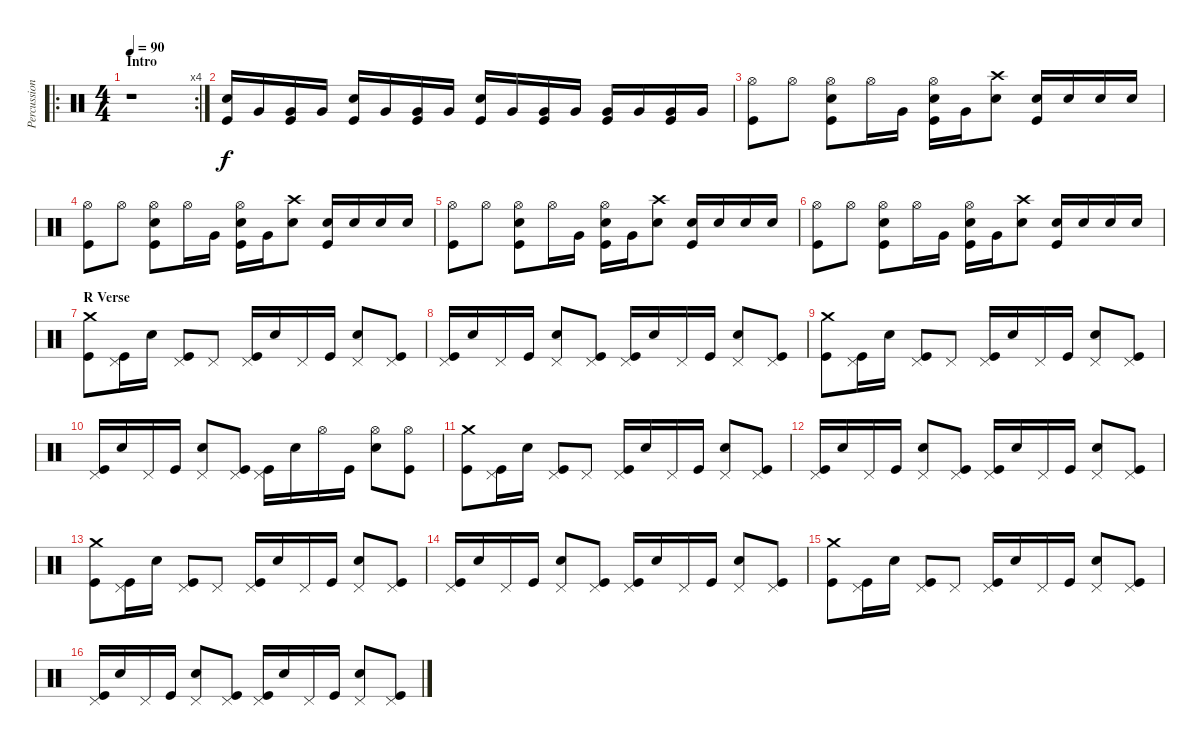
\track ("Percussion" "Percussion") {instrument percussion}
\staff {score}
\articulation defaults
\ro
\rc 4
\ts (4 4)
\section ("" "Intro")
\tempo 90
\clef neutral
\ks c
r.1{dy f} |
("Snare (hit) 2" "Kick (hit)").16 "Very Low Tom (hit)".16 ("Very Low Tom (hit)" "Kick (hit)").16 "Very Low Tom (hit)".16 ("Snare (hit) 2" "Kick (hit)").16 "Very Low Tom (hit)".16 ("Very Low Tom (hit)" "Kick (hit)").16 "Very Low Tom (hit)".16 ("Snare (hit) 2" "Kick (hit)").16 "Very Low Tom (hit)".16 ("Very Low Tom (hit)" "Kick (hit)").16 "Very Low Tom (hit)".16 ("Very Low Tom (hit)" "Kick (hit)").16 "Very Low Tom (hit)".16 ("Very Low Tom (hit)" "Kick (hit)").16 "Very Low Tom (hit)".16 |
("Hi-Hat (open)" "Kick (hit)").8 "Hi-Hat (open)".8 ("Hi-Hat (open)" "Snare (hit) 2" "Kick (hit)").8 "Hi-Hat (open)".16 "Very Low Tom (hit)".16 ("Hi-Hat (open)" "Snare (hit) 2" "Kick (hit)").16 "Very Low Tom (hit)".16 ("Crash high (hit)" "Snare (hit) 2").8 ("Snare (hit) 2" "Kick (hit)").16 "Snare (hit) 2".16 "Snare (hit) 2".16 "Snare (hit) 2".16 |
("Hi-Hat (open)" "Kick (hit)").8 "Hi-Hat (open)".8 ("Hi-Hat (open)" "Snare (hit) 2" "Kick (hit)").8 "Hi-Hat (open)".16 "Very Low Tom (hit)".16 ("Hi-Hat (open)" "Snare (hit) 2" "Kick (hit)").16 "Very Low Tom (hit)".16 ("Crash high (hit)" "Snare (hit) 2").8 ("Snare (hit) 2" "Kick (hit)").16 "Snare (hit) 2".16 "Snare (hit) 2".16 "Snare (hit) 2".16 |
("Hi-Hat (open)" "Kick (hit)").8 "Hi-Hat (open)".8 ("Hi-Hat (open)" "Snare (hit) 2" "Kick (hit)").8 "Hi-Hat (open)".16 "Very Low Tom (hit)".16 ("Hi-Hat (open)" "Snare (hit) 2" "Kick (hit)").16 "Very Low Tom (hit)".16 ("Crash high (hit)" "Snare (hit) 2").8 ("Snare (hit) 2" "Kick (hit)").16 "Snare (hit) 2".16 "Snare (hit) 2".16 "Snare (hit) 2".16 |
("Hi-Hat (open)" "Kick (hit)").8 "Hi-Hat (open)".8 ("Hi-Hat (open)" "Snare (hit) 2" "Kick (hit)").8 "Hi-Hat (open)".16 "Very Low Tom (hit)".16 ("Hi-Hat (open)" "Snare (hit) 2" "Kick (hit)").16 "Very Low Tom (hit)".16 ("Crash high (hit)" "Snare (hit) 2").8 ("Snare (hit) 2" "Kick (hit)").16 "Snare (hit) 2".16 "Snare (hit) 2".16 "Snare (hit) 2".16 |
\section ("" "R Verse")
("Crash medium (hit)" "Kick (hit)").8 ("Pedal Hi-Hat (hit)" "Kick (hit)").16 "Snare (hit) 2".16 ("Pedal Hi-Hat (hit)" "Kick (hit)").8 "Pedal Hi-Hat (hit)".8 ("Pedal Hi-Hat (hit)" "Kick (hit)").16 "Snare (hit) 2".16 "Pedal Hi-Hat (hit)".16 "Kick (hit)".16 ("Pedal Hi-Hat (hit)" "Snare (hit) 2").8 ("Pedal Hi-Hat (hit)" "Kick (hit)").8 |
("Pedal Hi-Hat (hit)" "Kick (hit)").16 "Snare (hit) 2".16 "Pedal Hi-Hat (hit)".16 "Kick (hit)".16 ("Pedal Hi-Hat (hit)" "Snare (hit) 2").8 ("Pedal Hi-Hat (hit)" "Kick (hit)").8 ("Pedal Hi-Hat (hit)" "Kick (hit)").16 "Snare (hit) 2".16 "Pedal Hi-Hat (hit)".16 "Kick (hit)".16 ("Pedal Hi-Hat (hit)" "Snare (hit) 2").8 ("Pedal Hi-Hat (hit)" "Kick (hit)").8 |
("Crash medium (hit)" "Kick (hit)").8 ("Pedal Hi-Hat (hit)" "Kick (hit)").16 "Snare (hit) 2".16 ("Pedal Hi-Hat (hit)" "Kick (hit)").8 "Pedal Hi-Hat (hit)".8 ("Pedal Hi-Hat (hit)" "Kick (hit)").16 "Snare (hit) 2".16 "Pedal Hi-Hat (hit)".16 "Kick (hit)".16 ("Pedal Hi-Hat (hit)" "Snare (hit) 2").8 ("Pedal Hi-Hat (hit)" "Kick (hit)").8 |
("Pedal Hi-Hat (hit)" "Kick (hit)").16 "Snare (hit) 2".16 "Pedal Hi-Hat (hit)".16 "Kick (hit)".16 ("Pedal Hi-Hat (hit)" "Snare (hit) 2").8 ("Pedal Hi-Hat (hit)" "Kick (hit)").8 ("Pedal Hi-Hat (hit)" "Kick (hit)").16 "Snare (hit) 2".16 "Hi-Hat (open)".16 "Kick (hit)".16 ("Hi-Hat (open)" "Snare (hit) 2").8 ("Hi-Hat (open)" "Kick (hit)").8 |
("Crash medium (hit)" "Kick (hit)").8 ("Pedal Hi-Hat (hit)" "Kick (hit)").16 "Snare (hit) 2".16 ("Pedal Hi-Hat (hit)" "Kick (hit)").8 "Pedal Hi-Hat (hit)".8 ("Pedal Hi-Hat (hit)" "Kick (hit)").16 "Snare (hit) 2".16 "Pedal Hi-Hat (hit)".16 "Kick (hit)".16 ("Pedal Hi-Hat (hit)" "Snare (hit) 2").8 ("Pedal Hi-Hat (hit)" "Kick (hit)").8 |
("Pedal Hi-Hat (hit)" "Kick (hit)").16 "Snare (hit) 2".16 "Pedal Hi-Hat (hit)".16 "Kick (hit)".16 ("Pedal Hi-Hat (hit)" "Snare (hit) 2").8 ("Pedal Hi-Hat (hit)" "Kick (hit)").8 ("Pedal Hi-Hat (hit)" "Kick (hit)").16 "Snare (hit) 2".16 "Pedal Hi-Hat (hit)".16 "Kick (hit)".16 ("Pedal Hi-Hat (hit)" "Snare (hit) 2").8 ("Pedal Hi-Hat (hit)" "Kick (hit)").8 |
("Crash medium (hit)" "Kick (hit)").8 ("Pedal Hi-Hat (hit)" "Kick (hit)").16 "Snare (hit) 2".16 ("Pedal Hi-Hat (hit)" "Kick (hit)").8 "Pedal Hi-Hat (hit)".8 ("Pedal Hi-Hat (hit)" "Kick (hit)").16 "Snare (hit) 2".16 "Pedal Hi-Hat (hit)".16 "Kick (hit)".16 ("Pedal Hi-Hat (hit)" "Snare (hit) 2").8 ("Pedal Hi-Hat (hit)" "Kick (hit)").8 |
("Pedal Hi-Hat (hit)" "Kick (hit)").16 "Snare (hit) 2".16 "Pedal Hi-Hat (hit)".16 "Kick (hit)".16 ("Pedal Hi-Hat (hit)" "Snare (hit) 2").8 ("Pedal Hi-Hat (hit)" "Kick (hit)").8 ("Pedal Hi-Hat (hit)" "Kick (hit)").16 "Snare (hit) 2".16 "Pedal Hi-Hat (hit)".16 "Kick (hit)".16 ("Pedal Hi-Hat (hit)" "Snare (hit) 2").8 ("Pedal Hi-Hat (hit)" "Kick (hit)").8 |
("Crash medium (hit)" "Kick (hit)").8 ("Pedal Hi-Hat (hit)" "Kick (hit)").16 "Snare (hit) 2".16 ("Pedal Hi-Hat (hit)" "Kick (hit)").8 "Pedal Hi-Hat (hit)".8 ("Pedal Hi-Hat (hit)" "Kick (hit)").16 "Snare (hit) 2".16 "Pedal Hi-Hat (hit)".16 "Kick (hit)".16 ("Pedal Hi-Hat (hit)" "Snare (hit) 2").8 ("Pedal Hi-Hat (hit)" "Kick (hit)").8 |
("Pedal Hi-Hat (hit)" "Kick (hit)").16 "Snare (hit) 2".16 "Pedal Hi-Hat (hit)".16 "Kick (hit)".16 ("Pedal Hi-Hat (hit)" "Snare (hit) 2").8 ("Pedal Hi-Hat (hit)" "Kick (hit)").8 ("Pedal Hi-Hat (hit)" "Kick (hit)").16 "Snare (hit) 2".16 "Pedal Hi-Hat (hit)".16 "Kick (hit)".16 ("Pedal Hi-Hat (hit)" "Snare (hit) 2").8 ("Pedal Hi-Hat (hit)" "Kick (hit)").8
